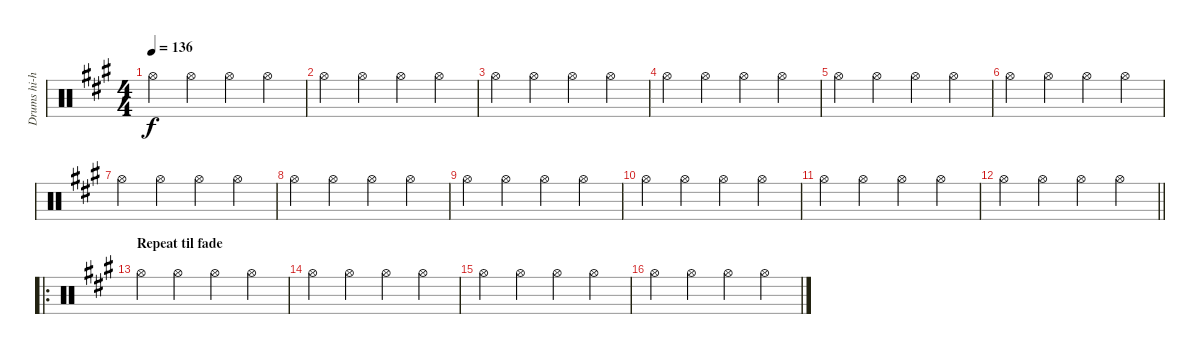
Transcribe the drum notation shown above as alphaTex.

\track ("Drums hi-hat" "Drums hi-h") {instrument percussion}
\staff {score}
\articulation defaults
\ts (4 4)
\tempo 136
\clef neutral
\ks a "Hi-Hat (open)".4{dy f} "Hi-Hat (open)".4 "Hi-Hat (open)".4 "Hi-Hat (open)".4
|
"Hi-Hat (open)".4 "Hi-Hat (open)".4 "Hi-Hat (open)".4 "Hi-Hat (open)".4 |
"Hi-Hat (open)".4 "Hi-Hat (open)".4 "Hi-Hat (open)".4 "Hi-Hat (open)".4 |
"Hi-Hat (open)".4 "Hi-Hat (open)".4 "Hi-Hat (open)".4 "Hi-Hat (open)".4 |
"Hi-Hat (open)".4 "Hi-Hat (open)".4 "Hi-Hat (open)".4 "Hi-Hat (open)".4 |
"Hi-Hat (open)".4 "Hi-Hat (open)".4 "Hi-Hat (open)".4 "Hi-Hat (open)".4 |
"Hi-Hat (open)".4 "Hi-Hat (open)".4 "Hi-Hat (open)".4 "Hi-Hat (open)".4 |
"Hi-Hat (open)".4 "Hi-Hat (open)".4 "Hi-Hat (open)".4 "Hi-Hat (open)".4 |
"Hi-Hat (open)".4 "Hi-Hat (open)".4 "Hi-Hat (open)".4 "Hi-Hat (open)".4 |
"Hi-Hat (open)".4 "Hi-Hat (open)".4 "Hi-Hat (open)".4 "Hi-Hat (open)".4 |
"Hi-Hat (open)".4 "Hi-Hat (open)".4 "Hi-Hat (open)".4 "Hi-Hat (open)".4 |
\barLineRight lightlight "Hi-Hat (open)".4 "Hi-Hat (open)".4 "Hi-Hat (open)".4 "Hi-Hat (open)".4
|
\ro
\section ("" "Repeat til fade")
"Hi-Hat (open)".4 "Hi-Hat (open)".4 "Hi-Hat (open)".4 "Hi-Hat (open)".4 |
"Hi-Hat (open)".4 "Hi-Hat (open)".4 "Hi-Hat (open)".4 "Hi-Hat (open)".4 |
"Hi-Hat (open)".4 "Hi-Hat (open)".4 "Hi-Hat (open)".4 "Hi-Hat (open)".4 |
"Hi-Hat (open)".4 "Hi-Hat (open)".4 "Hi-Hat (open)".4 "Hi-Hat (open)".4
